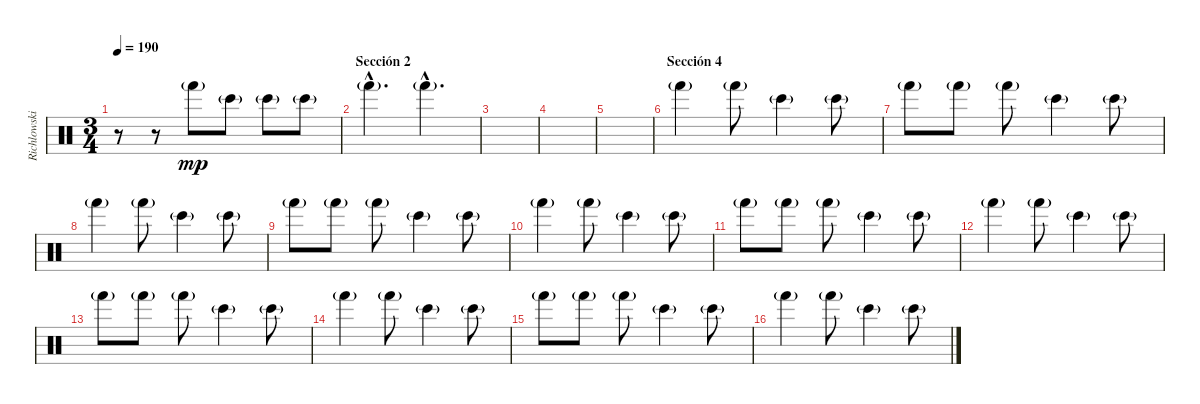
\track ("Richlowski y Dj Raff" "Richlowski") {instrument percussion}
\staff {score}
\articulation defaults
\ts (3 4)
\tempo 190
\clef neutral
\ks c
r.8{dy mp} r.8 "Hand (hit)"{g}.8 "Bongo High (hit)"{g}.8 "Bongo High (hit)"{g}.8 "Bongo High (hit)"{g}.8 |
\section ("" "Sección 2")
"Hand (hit)"{g hac}.4{d} "Hand (hit)"{g hac}.4{d} |
|
|
|
\section ("" "Sección 4")
"Hand (hit)"{g}.4 "Hand (hit)"{g}.8 "Bongo High (hit)"{g}.4 "Bongo High (hit)"{g}.8 |
"Hand (hit)"{g}.8 "Hand (hit)"{g}.8 "Hand (hit)"{g}.8 "Bongo High (hit)"{g}.4 "Bongo High (hit)"{g}.8 |
"Hand (hit)"{g}.4 "Hand (hit)"{g}.8 "Bongo High (hit)"{g}.4 "Bongo High (hit)"{g}.8 |
"Hand (hit)"{g}.8 "Hand (hit)"{g}.8 "Hand (hit)"{g}.8 "Bongo High (hit)"{g}.4 "Bongo High (hit)"{g}.8 |
"Hand (hit)"{g}.4 "Hand (hit)"{g}.8 "Bongo High (hit)"{g}.4 "Bongo High (hit)"{g}.8 |
"Hand (hit)"{g}.8 "Hand (hit)"{g}.8 "Hand (hit)"{g}.8 "Bongo High (hit)"{g}.4 "Bongo High (hit)"{g}.8 |
"Hand (hit)"{g}.4 "Hand (hit)"{g}.8 "Bongo High (hit)"{g}.4 "Bongo High (hit)"{g}.8 |
"Hand (hit)"{g}.8 "Hand (hit)"{g}.8 "Hand (hit)"{g}.8 "Bongo High (hit)"{g}.4 "Bongo High (hit)"{g}.8 |
"Hand (hit)"{g}.4 "Hand (hit)"{g}.8 "Bongo High (hit)"{g}.4 "Bongo High (hit)"{g}.8 |
"Hand (hit)"{g}.8 "Hand (hit)"{g}.8 "Hand (hit)"{g}.8 "Bongo High (hit)"{g}.4 "Bongo High (hit)"{g}.8 |
"Hand (hit)"{g}.4 "Hand (hit)"{g}.8 "Bongo High (hit)"{g}.4 "Bongo High (hit)"{g}.8
